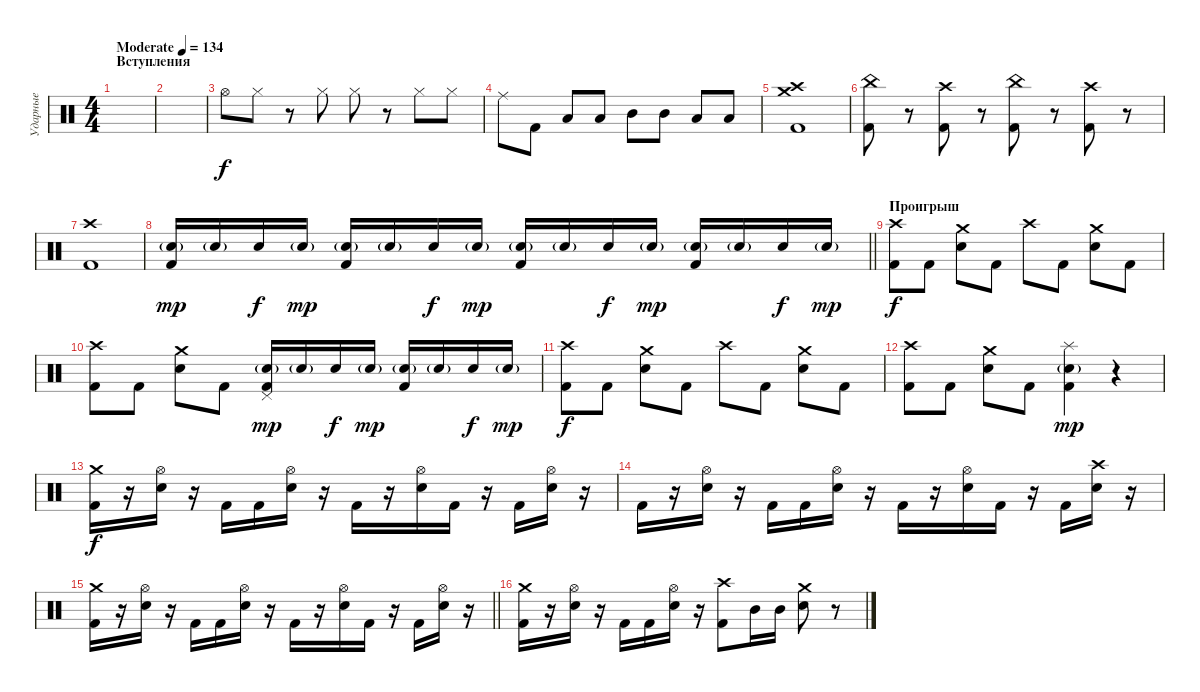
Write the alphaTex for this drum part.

\track ("Ударные" "Ударные") {instrument percussion}
\staff {score}
\articulation defaults
\ts (4 4)
\section ("" "Вступления")
\tempo (134 "Moderate")
\clef neutral
\ks c
|
|
"Hi-Hat (open)".8 "Hi-Hat (closed)".8 r.8 "Hi-Hat (closed)".8 "Hi-Hat (closed)".8 r.8 "Hi-Hat (closed)".8 "Hi-Hat (closed)".8 |
"Ride (middle)".8 "Kick (hit) 2".8 "Low Tom (hit)".8 "Low Tom (hit)".8 "Mid Tom (hit)".8 "Mid Tom (hit)".8 "Low Floor Tom (hit)".8 "Low Floor Tom (hit)".8 |
("Crash high (hit)" "Crash medium (hit)" "Kick (hit) 2").1 |
("China (hit)" "Kick (hit) 2").8 r.8 ("Crash high (hit)" "Kick (hit) 2").8 r.8 ("China (hit)" "Kick (hit) 2").8 r.8 ("Crash high (hit)" "Kick (hit) 2").8 r.8 |
("Crash high (hit)" "Kick (hit) 2").1 |
\barLineRight lightlight
("Snare (hit) 2"{g} "Kick (hit) 2").16{dy mp} "Snare (hit) 2"{g}.16 "Snare (hit) 2".16{dy f} "Snare (hit) 2"{g}.16{dy mp} ("Snare (hit) 2"{g} "Kick (hit) 2").16 "Snare (hit) 2"{g}.16 "Snare (hit) 2".16{dy f} "Snare (hit) 2"{g}.16{dy mp} ("Snare (hit) 2"{g} "Kick (hit) 2").16 "Snare (hit) 2"{g}.16 "Snare (hit) 2".16{dy f} "Snare (hit) 2"{g}.16{dy mp} ("Snare (hit) 2"{g} "Kick (hit) 2").16 "Snare (hit) 2"{g}.16 "Snare (hit) 2".16{dy f} "Snare (hit) 2"{g}.16{dy mp} |
\section ("" "Проигрыш")
("Crash high (hit)" "Kick (hit) 2").8{dy f} "Kick (hit) 2".8 ("Crash medium (hit)" "Snare (hit) 2").8 "Kick (hit) 2".8 "Crash high (hit)".8 "Kick (hit) 2".8 ("Crash medium (hit)" "Snare (hit) 2").8 "Kick (hit) 2".8 |
("Crash high (hit)" "Kick (hit) 2").8 "Kick (hit) 2".8 ("Crash medium (hit)" "Snare (hit) 2").8 "Kick (hit) 2".8 ("Pedal Hi-Hat (hit)" "Snare (hit) 2"{g} "Kick (hit) 2").16{dy mp} "Snare (hit) 2"{g}.16 "Snare (hit) 2".16{dy f} "Snare (hit) 2"{g}.16{dy mp} ("Snare (hit) 2"{g} "Kick (hit) 2").16 "Snare (hit) 2"{g}.16 "Snare (hit) 2".16{dy f} "Snare (hit) 2"{g}.16{dy mp} |
("Crash high (hit)" "Kick (hit) 2").8{dy f} "Kick (hit) 2".8 ("Crash medium (hit)" "Snare (hit) 2").8 "Kick (hit) 2".8 "Crash high (hit)".8 "Kick (hit) 2".8 ("Crash medium (hit)" "Snare (hit) 2").8 "Kick (hit) 2".8 |
("Crash high (hit)" "Kick (hit) 2").8 "Kick (hit) 2".8 ("Crash medium (hit)" "Snare (hit) 2").8 "Kick (hit) 2".8 ("Splash (hit)" "Snare (hit) 2"{g} "Kick (hit) 2").4{dy mp} r.4 |
("Crash medium (hit)" "Kick (hit) 2").16{dy f} r.16 ("Hi-Hat (open)" "Snare (hit) 2").16 r.16 "Kick (hit) 2".16 "Kick (hit) 2".16 ("Hi-Hat (open)" "Snare (hit) 2").16 r.16 "Kick (hit) 2".16 r.16 ("Hi-Hat (open)" "Snare (hit) 2").16 "Kick (hit) 2".16 r.16 "Kick (hit) 2".16 ("Hi-Hat (open)" "Snare (hit) 2").16 r.16 |
"Kick (hit) 2".16 r.16 ("Hi-Hat (open)" "Snare (hit) 2").16 r.16 "Kick (hit) 2".16 "Kick (hit) 2".16 ("Hi-Hat (open)" "Snare (hit) 2").16 r.16 "Kick (hit) 2".16 r.16 ("Hi-Hat (open)" "Snare (hit) 2").16 "Kick (hit) 2".16 r.16 "Kick (hit) 2".16 ("Crash high (hit)" "Snare (hit) 2").16 r.16 |
\barLineRight lightlight
("Crash medium (hit)" "Kick (hit) 2").16 r.16 ("Hi-Hat (open)" "Snare (hit) 2").16 r.16 "Kick (hit) 2".16 "Kick (hit) 2".16 ("Hi-Hat (open)" "Snare (hit) 2").16 r.16 "Kick (hit) 2".16 r.16 ("Hi-Hat (open)" "Snare (hit) 2").16 "Kick (hit) 2".16 r.16 "Kick (hit) 2".16 ("Hi-Hat (open)" "Snare (hit) 2").16 r.16 |
("Crash medium (hit)" "Kick (hit) 2").16 r.16 ("Hi-Hat (open)" "Snare (hit) 2").16 r.16 "Kick (hit) 2".16 "Kick (hit) 2".16 ("Hi-Hat (open)" "Snare (hit) 2").16 r.16 ("Crash high (hit)" "Kick (hit) 2").8 "Mid Tom (hit)".16 "Mid Tom (hit)".16 ("Crash medium (hit)" "Snare (hit) 2").8 r.8
